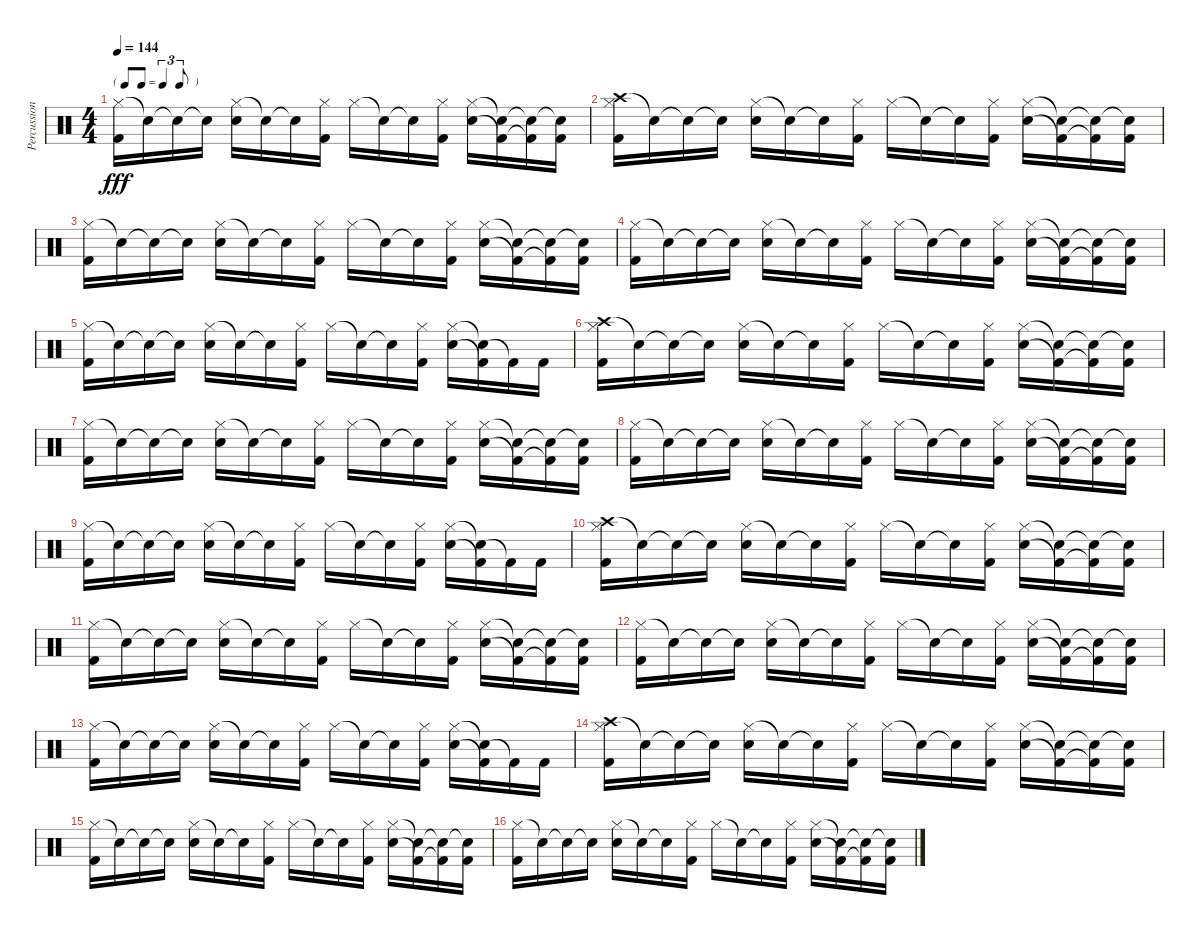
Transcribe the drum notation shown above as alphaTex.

\track ("Percussion" "Percussion") {instrument percussion}
\staff {score}
\articulation defaults
\ts (4 4)
\tf triplet8th
\tempo 144
\clef neutral
\ks c
("Hi-Hat (closed)" "Kick (hit) 2").16{dy fff} "Snare (hit)"{t}.16 "Snare (hit)"{t}.16 "Snare (hit)"{t}.16 ("Hi-Hat (closed)" "Electric Snare (hit)").16 "Snare (hit)"{t}.16 "Snare (hit)"{t}.16 ("Hi-Hat (closed)" "Kick (hit) 2").16 "Hi-Hat (closed)".16 "Snare (hit)"{t}.16 "Snare (hit)"{t}.16 ("Hi-Hat (closed)" "Kick (hit) 2").16 ("Hi-Hat (closed)" "Electric Snare (hit)").16 ("Snare (hit)"{t} "Kick (hit) 2"{t}).16 ("Snare (hit)"{t} "Kick (hit) 2"{t}).16 ("Snare (hit)"{t} "Kick (hit) 2").16 |
("Crash high (hit)" "Hi-Hat (closed)" "Kick (hit) 2").16 "Snare (hit)"{t}.16 "Snare (hit)"{t}.16 "Snare (hit)"{t}.16 ("Hi-Hat (closed)" "Electric Snare (hit)").16 "Snare (hit)"{t}.16 "Snare (hit)"{t}.16 ("Hi-Hat (closed)" "Kick (hit) 2").16 "Hi-Hat (closed)".16 "Snare (hit)"{t}.16 "Snare (hit)"{t}.16 ("Hi-Hat (closed)" "Kick (hit) 2").16 ("Hi-Hat (closed)" "Electric Snare (hit)").16 ("Snare (hit)"{t} "Kick (hit) 2"{t}).16 ("Snare (hit)"{t} "Kick (hit) 2"{t}).16 ("Snare (hit)"{t} "Kick (hit) 2").16 |
("Hi-Hat (closed)" "Kick (hit) 2").16 "Snare (hit)"{t}.16 "Snare (hit)"{t}.16 "Snare (hit)"{t}.16 ("Hi-Hat (closed)" "Electric Snare (hit)").16 "Snare (hit)"{t}.16 "Snare (hit)"{t}.16 ("Hi-Hat (closed)" "Kick (hit) 2").16 "Hi-Hat (closed)".16 "Snare (hit)"{t}.16 "Snare (hit)"{t}.16 ("Hi-Hat (closed)" "Kick (hit) 2").16 ("Hi-Hat (closed)" "Electric Snare (hit)").16 ("Snare (hit)"{t} "Kick (hit) 2"{t}).16 ("Snare (hit)"{t} "Kick (hit) 2"{t}).16 ("Snare (hit)"{t} "Kick (hit) 2").16 |
("Hi-Hat (closed)" "Kick (hit) 2").16 "Snare (hit)"{t}.16 "Snare (hit)"{t}.16 "Snare (hit)"{t}.16 ("Hi-Hat (closed)" "Electric Snare (hit)").16 "Snare (hit)"{t}.16 "Snare (hit)"{t}.16 ("Hi-Hat (closed)" "Kick (hit) 2").16 "Hi-Hat (closed)".16 "Snare (hit)"{t}.16 "Snare (hit)"{t}.16 ("Hi-Hat (closed)" "Kick (hit) 2").16 ("Hi-Hat (closed)" "Electric Snare (hit)").16 ("Snare (hit)"{t} "Kick (hit) 2"{t}).16 ("Snare (hit)"{t} "Kick (hit) 2"{t}).16 ("Snare (hit)"{t} "Kick (hit) 2").16 |
("Hi-Hat (closed)" "Kick (hit) 2").16 "Snare (hit)"{t}.16 "Snare (hit)"{t}.16 "Snare (hit)"{t}.16 ("Hi-Hat (closed)" "Electric Snare (hit)").16 "Snare (hit)"{t}.16 "Snare (hit)"{t}.16 ("Hi-Hat (closed)" "Kick (hit) 2").16 "Hi-Hat (closed)".16 "Snare (hit)"{t}.16 "Snare (hit)"{t}.16 ("Hi-Hat (closed)" "Kick (hit) 2").16 ("Hi-Hat (closed)" "Electric Snare (hit)").16 ("Snare (hit)"{t} "Kick (hit) 2"{t}).16 "Kick (hit) 2"{t}.16 "Kick (hit) 2".16 |
("Crash high (hit)" "Hi-Hat (closed)" "Kick (hit) 2").16 "Snare (hit)"{t}.16 "Snare (hit)"{t}.16 "Snare (hit)"{t}.16 ("Hi-Hat (closed)" "Electric Snare (hit)").16 "Snare (hit)"{t}.16 "Snare (hit)"{t}.16 ("Hi-Hat (closed)" "Kick (hit) 2").16 "Hi-Hat (closed)".16 "Snare (hit)"{t}.16 "Snare (hit)"{t}.16 ("Hi-Hat (closed)" "Kick (hit) 2").16 ("Hi-Hat (closed)" "Electric Snare (hit)").16 ("Snare (hit)"{t} "Kick (hit) 2"{t}).16 ("Snare (hit)"{t} "Kick (hit) 2"{t}).16 ("Snare (hit)"{t} "Kick (hit) 2").16 |
("Hi-Hat (closed)" "Kick (hit) 2").16 "Snare (hit)"{t}.16 "Snare (hit)"{t}.16 "Snare (hit)"{t}.16 ("Hi-Hat (closed)" "Electric Snare (hit)").16 "Snare (hit)"{t}.16 "Snare (hit)"{t}.16 ("Hi-Hat (closed)" "Kick (hit) 2").16 "Hi-Hat (closed)".16 "Snare (hit)"{t}.16 "Snare (hit)"{t}.16 ("Hi-Hat (closed)" "Kick (hit) 2").16 ("Hi-Hat (closed)" "Electric Snare (hit)").16 ("Snare (hit)"{t} "Kick (hit) 2"{t}).16 ("Snare (hit)"{t} "Kick (hit) 2"{t}).16 ("Snare (hit)"{t} "Kick (hit) 2").16 |
("Hi-Hat (closed)" "Kick (hit) 2").16 "Snare (hit)"{t}.16 "Snare (hit)"{t}.16 "Snare (hit)"{t}.16 ("Hi-Hat (closed)" "Electric Snare (hit)").16 "Snare (hit)"{t}.16 "Snare (hit)"{t}.16 ("Hi-Hat (closed)" "Kick (hit) 2").16 "Hi-Hat (closed)".16 "Snare (hit)"{t}.16 "Snare (hit)"{t}.16 ("Hi-Hat (closed)" "Kick (hit) 2").16 ("Hi-Hat (closed)" "Electric Snare (hit)").16 ("Snare (hit)"{t} "Kick (hit) 2"{t}).16 ("Snare (hit)"{t} "Kick (hit) 2"{t}).16 ("Snare (hit)"{t} "Kick (hit) 2").16 |
("Hi-Hat (closed)" "Kick (hit) 2").16 "Snare (hit)"{t}.16 "Snare (hit)"{t}.16 "Snare (hit)"{t}.16 ("Hi-Hat (closed)" "Electric Snare (hit)").16 "Snare (hit)"{t}.16 "Snare (hit)"{t}.16 ("Hi-Hat (closed)" "Kick (hit) 2").16 "Hi-Hat (closed)".16 "Snare (hit)"{t}.16 "Snare (hit)"{t}.16 ("Hi-Hat (closed)" "Kick (hit) 2").16 ("Hi-Hat (closed)" "Electric Snare (hit)").16 ("Snare (hit)"{t} "Kick (hit) 2"{t}).16 "Kick (hit) 2"{t}.16 "Kick (hit) 2".16 |
("Crash high (hit)" "Hi-Hat (closed)" "Kick (hit) 2").16 "Snare (hit)"{t}.16 "Snare (hit)"{t}.16 "Snare (hit)"{t}.16 ("Hi-Hat (closed)" "Electric Snare (hit)").16 "Snare (hit)"{t}.16 "Snare (hit)"{t}.16 ("Hi-Hat (closed)" "Kick (hit) 2").16 "Hi-Hat (closed)".16 "Snare (hit)"{t}.16 "Snare (hit)"{t}.16 ("Hi-Hat (closed)" "Kick (hit) 2").16 ("Hi-Hat (closed)" "Electric Snare (hit)").16 ("Snare (hit)"{t} "Kick (hit) 2"{t}).16 ("Snare (hit)"{t} "Kick (hit) 2"{t}).16 ("Snare (hit)"{t} "Kick (hit) 2").16 |
("Hi-Hat (closed)" "Kick (hit) 2").16 "Snare (hit)"{t}.16 "Snare (hit)"{t}.16 "Snare (hit)"{t}.16 ("Hi-Hat (closed)" "Electric Snare (hit)").16 "Snare (hit)"{t}.16 "Snare (hit)"{t}.16 ("Hi-Hat (closed)" "Kick (hit) 2").16 "Hi-Hat (closed)".16 "Snare (hit)"{t}.16 "Snare (hit)"{t}.16 ("Hi-Hat (closed)" "Kick (hit) 2").16 ("Hi-Hat (closed)" "Electric Snare (hit)").16 ("Snare (hit)"{t} "Kick (hit) 2"{t}).16 ("Snare (hit)"{t} "Kick (hit) 2"{t}).16 ("Snare (hit)"{t} "Kick (hit) 2").16 |
("Hi-Hat (closed)" "Kick (hit) 2").16 "Snare (hit)"{t}.16 "Snare (hit)"{t}.16 "Snare (hit)"{t}.16 ("Hi-Hat (closed)" "Electric Snare (hit)").16 "Snare (hit)"{t}.16 "Snare (hit)"{t}.16 ("Hi-Hat (closed)" "Kick (hit) 2").16 "Hi-Hat (closed)".16 "Snare (hit)"{t}.16 "Snare (hit)"{t}.16 ("Hi-Hat (closed)" "Kick (hit) 2").16 ("Hi-Hat (closed)" "Electric Snare (hit)").16 ("Snare (hit)"{t} "Kick (hit) 2"{t}).16 ("Snare (hit)"{t} "Kick (hit) 2"{t}).16 ("Snare (hit)"{t} "Kick (hit) 2").16 |
("Hi-Hat (closed)" "Kick (hit) 2").16 "Snare (hit)"{t}.16 "Snare (hit)"{t}.16 "Snare (hit)"{t}.16 ("Hi-Hat (closed)" "Electric Snare (hit)").16 "Snare (hit)"{t}.16 "Snare (hit)"{t}.16 ("Hi-Hat (closed)" "Kick (hit) 2").16 "Hi-Hat (closed)".16 "Snare (hit)"{t}.16 "Snare (hit)"{t}.16 ("Hi-Hat (closed)" "Kick (hit) 2").16 ("Hi-Hat (closed)" "Electric Snare (hit)").16 ("Snare (hit)"{t} "Kick (hit) 2"{t}).16 "Kick (hit) 2"{t}.16 "Kick (hit) 2".16 |
("Crash high (hit)" "Hi-Hat (closed)" "Kick (hit) 2").16 "Snare (hit)"{t}.16 "Snare (hit)"{t}.16 "Snare (hit)"{t}.16 ("Hi-Hat (closed)" "Electric Snare (hit)").16 "Snare (hit)"{t}.16 "Snare (hit)"{t}.16 ("Hi-Hat (closed)" "Kick (hit) 2").16 "Hi-Hat (closed)".16 "Snare (hit)"{t}.16 "Snare (hit)"{t}.16 ("Hi-Hat (closed)" "Kick (hit) 2").16 ("Hi-Hat (closed)" "Electric Snare (hit)").16 ("Snare (hit)"{t} "Kick (hit) 2"{t}).16 ("Snare (hit)"{t} "Kick (hit) 2"{t}).16 ("Snare (hit)"{t} "Kick (hit) 2").16 |
("Hi-Hat (closed)" "Kick (hit) 2").16 "Snare (hit)"{t}.16 "Snare (hit)"{t}.16 "Snare (hit)"{t}.16 ("Hi-Hat (closed)" "Electric Snare (hit)").16 "Snare (hit)"{t}.16 "Snare (hit)"{t}.16 ("Hi-Hat (closed)" "Kick (hit) 2").16 "Hi-Hat (closed)".16 "Snare (hit)"{t}.16 "Snare (hit)"{t}.16 ("Hi-Hat (closed)" "Kick (hit) 2").16 ("Hi-Hat (closed)" "Electric Snare (hit)").16 ("Snare (hit)"{t} "Kick (hit) 2"{t}).16 ("Snare (hit)"{t} "Kick (hit) 2"{t}).16 ("Snare (hit)"{t} "Kick (hit) 2").16 |
("Hi-Hat (closed)" "Kick (hit) 2").16 "Snare (hit)"{t}.16 "Snare (hit)"{t}.16 "Snare (hit)"{t}.16 ("Hi-Hat (closed)" "Electric Snare (hit)").16 "Snare (hit)"{t}.16 "Snare (hit)"{t}.16 ("Hi-Hat (closed)" "Kick (hit) 2").16 "Hi-Hat (closed)".16 "Snare (hit)"{t}.16 "Snare (hit)"{t}.16 ("Hi-Hat (closed)" "Kick (hit) 2").16 ("Hi-Hat (closed)" "Electric Snare (hit)").16 ("Snare (hit)"{t} "Kick (hit) 2"{t}).16 ("Snare (hit)"{t} "Kick (hit) 2"{t}).16 ("Snare (hit)"{t} "Kick (hit) 2").16
